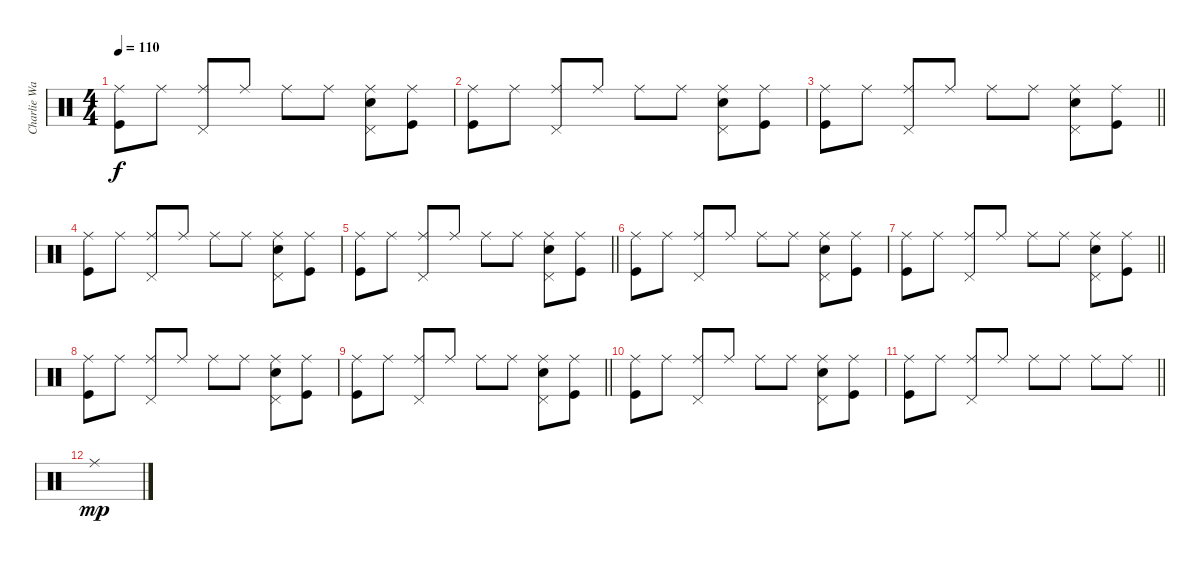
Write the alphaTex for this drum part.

\track ("Charlie Watts" "Charlie Wa") {instrument percussion}
\staff {score}
\articulation defaults
\ts (4 4)
\tempo 110
\clef neutral
\ks c
("Ride (middle)" "Kick (hit)").8{dy f} "Ride (middle)".8 ("Ride (middle)" "Pedal Hi-Hat (hit)").8 "Ride (middle)".8 "Ride (middle)".8 "Ride (middle)".8 ("Ride (middle)" "Snare (hit) 2" "Pedal Hi-Hat (hit)").8 ("Ride (middle)" "Kick (hit)").8 |
("Ride (middle)" "Kick (hit)").8 "Ride (middle)".8 ("Ride (middle)" "Pedal Hi-Hat (hit)").8 "Ride (middle)".8 "Ride (middle)".8 "Ride (middle)".8 ("Ride (middle)" "Snare (hit) 2" "Pedal Hi-Hat (hit)").8 ("Ride (middle)" "Kick (hit)").8 |
\barLineRight lightlight
("Ride (middle)" "Kick (hit)").8 "Ride (middle)".8 ("Ride (middle)" "Pedal Hi-Hat (hit)").8 "Ride (middle)".8 "Ride (middle)".8 "Ride (middle)".8 ("Ride (middle)" "Snare (hit) 2" "Pedal Hi-Hat (hit)").8 ("Ride (middle)" "Kick (hit)").8 |
("Ride (middle)" "Kick (hit)").8 "Ride (middle)".8 ("Ride (middle)" "Pedal Hi-Hat (hit)").8 "Ride (middle)".8 "Ride (middle)".8 "Ride (middle)".8 ("Ride (middle)" "Snare (hit) 2" "Pedal Hi-Hat (hit)").8 ("Ride (middle)" "Kick (hit)").8 |
\barLineRight lightlight
("Ride (middle)" "Kick (hit)").8 "Ride (middle)".8 ("Ride (middle)" "Pedal Hi-Hat (hit)").8 "Ride (middle)".8 "Ride (middle)".8 "Ride (middle)".8 ("Ride (middle)" "Snare (hit) 2" "Pedal Hi-Hat (hit)").8 ("Ride (middle)" "Kick (hit)").8 |
("Ride (middle)" "Kick (hit)").8 "Ride (middle)".8 ("Ride (middle)" "Pedal Hi-Hat (hit)").8 "Ride (middle)".8 "Ride (middle)".8 "Ride (middle)".8 ("Ride (middle)" "Snare (hit) 2" "Pedal Hi-Hat (hit)").8 ("Ride (middle)" "Kick (hit)").8 |
\barLineRight lightlight
("Ride (middle)" "Kick (hit)").8 "Ride (middle)".8 ("Ride (middle)" "Pedal Hi-Hat (hit)").8 "Ride (middle)".8 "Ride (middle)".8 "Ride (middle)".8 ("Ride (middle)" "Snare (hit) 2" "Pedal Hi-Hat (hit)").8 ("Ride (middle)" "Kick (hit)").8 |
("Ride (middle)" "Kick (hit)").8 "Ride (middle)".8 ("Ride (middle)" "Pedal Hi-Hat (hit)").8 "Ride (middle)".8 "Ride (middle)".8 "Ride (middle)".8 ("Ride (middle)" "Snare (hit) 2" "Pedal Hi-Hat (hit)").8 ("Ride (middle)" "Kick (hit)").8 |
\barLineRight lightlight
("Ride (middle)" "Kick (hit)").8 "Ride (middle)".8 ("Ride (middle)" "Pedal Hi-Hat (hit)").8 "Ride (middle)".8 "Ride (middle)".8 "Ride (middle)".8 ("Ride (middle)" "Snare (hit) 2" "Pedal Hi-Hat (hit)").8 ("Ride (middle)" "Kick (hit)").8 |
("Ride (middle)" "Kick (hit)").8 "Ride (middle)".8 ("Ride (middle)" "Pedal Hi-Hat (hit)").8 "Ride (middle)".8 "Ride (middle)".8 "Ride (middle)".8 ("Ride (middle)" "Snare (hit) 2" "Pedal Hi-Hat (hit)").8 ("Ride (middle)" "Kick (hit)").8 |
\barLineRight lightlight
("Ride (middle)" "Kick (hit)").8 "Ride (middle)".8 ("Ride (middle)" "Pedal Hi-Hat (hit)").8 "Ride (middle)".8 "Ride (middle)".8 "Ride (middle)".8 "Ride (middle)".8 "Ride (middle)".8 |
"Ride (middle)".1{dy mp}
